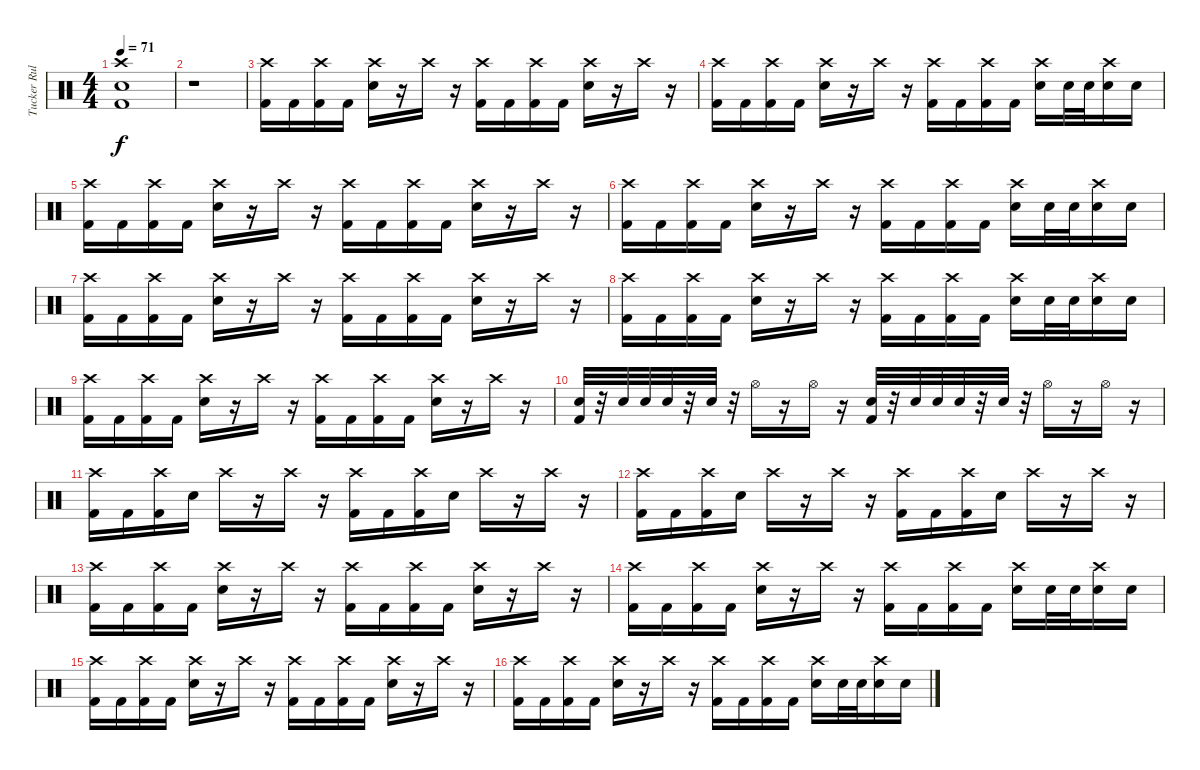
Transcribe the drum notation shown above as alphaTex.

\track ("Tucker Rule (Drums)" "Tucker Rul") {instrument percussion}
\staff {score}
\articulation defaults
\ts (4 4)
\tempo 71
\clef neutral
\ks c
("Crash high (hit)" "Electric Snare (hit)" "Kick (hit) 2").1{dy f} |
r.1 |
("Crash high (hit)" "Kick (hit) 2").16 "Kick (hit) 2".16 ("Crash high (hit)" "Kick (hit) 2").16 "Kick (hit) 2".16 ("Crash high (hit)" "Electric Snare (hit)").16 r.16 "Crash high (hit)".16 r.16 ("Crash high (hit)" "Kick (hit) 2").16 "Kick (hit) 2".16 ("Crash high (hit)" "Kick (hit) 2").16 "Kick (hit) 2".16 ("Crash high (hit)" "Electric Snare (hit)").16 r.16 "Crash high (hit)".16 r.16 |
("Crash high (hit)" "Kick (hit) 2").16 "Kick (hit) 2".16 ("Crash high (hit)" "Kick (hit) 2").16 "Kick (hit) 2".16 ("Crash high (hit)" "Electric Snare (hit)").16 r.16 "Crash high (hit)".16 r.16 ("Crash high (hit)" "Kick (hit) 2").16 "Kick (hit) 2".16 ("Crash high (hit)" "Kick (hit) 2").16 "Kick (hit) 2".16 ("Crash high (hit)" "Electric Snare (hit)").16 "Electric Snare (hit)".32 "Electric Snare (hit)".32 ("Crash high (hit)" "Electric Snare (hit)").16 "Electric Snare (hit)".16 |
("Crash high (hit)" "Kick (hit) 2").16 "Kick (hit) 2".16 ("Crash high (hit)" "Kick (hit) 2").16 "Kick (hit) 2".16 ("Crash high (hit)" "Electric Snare (hit)").16 r.16 "Crash high (hit)".16 r.16 ("Crash high (hit)" "Kick (hit) 2").16 "Kick (hit) 2".16 ("Crash high (hit)" "Kick (hit) 2").16 "Kick (hit) 2".16 ("Crash high (hit)" "Electric Snare (hit)").16 r.16 "Crash high (hit)".16 r.16 |
("Crash high (hit)" "Kick (hit) 2").16 "Kick (hit) 2".16 ("Crash high (hit)" "Kick (hit) 2").16 "Kick (hit) 2".16 ("Crash high (hit)" "Electric Snare (hit)").16 r.16 "Crash high (hit)".16 r.16 ("Crash high (hit)" "Kick (hit) 2").16 "Kick (hit) 2".16 ("Crash high (hit)" "Kick (hit) 2").16 "Kick (hit) 2".16 ("Crash high (hit)" "Electric Snare (hit)").16 "Electric Snare (hit)".32 "Electric Snare (hit)".32 ("Crash high (hit)" "Electric Snare (hit)").16 "Electric Snare (hit)".16 |
("Crash high (hit)" "Kick (hit) 2").16 "Kick (hit) 2".16 ("Crash high (hit)" "Kick (hit) 2").16 "Kick (hit) 2".16 ("Crash high (hit)" "Electric Snare (hit)").16 r.16 "Crash high (hit)".16 r.16 ("Crash high (hit)" "Kick (hit) 2").16 "Kick (hit) 2".16 ("Crash high (hit)" "Kick (hit) 2").16 "Kick (hit) 2".16 ("Crash high (hit)" "Electric Snare (hit)").16 r.16 "Crash high (hit)".16 r.16 |
("Crash high (hit)" "Kick (hit) 2").16 "Kick (hit) 2".16 ("Crash high (hit)" "Kick (hit) 2").16 "Kick (hit) 2".16 ("Crash high (hit)" "Electric Snare (hit)").16 r.16 "Crash high (hit)".16 r.16 ("Crash high (hit)" "Kick (hit) 2").16 "Kick (hit) 2".16 ("Crash high (hit)" "Kick (hit) 2").16 "Kick (hit) 2".16 ("Crash high (hit)" "Electric Snare (hit)").16 "Electric Snare (hit)".32 "Electric Snare (hit)".32 ("Crash high (hit)" "Electric Snare (hit)").16 "Electric Snare (hit)".16 |
("Crash high (hit)" "Kick (hit) 2").16 "Kick (hit) 2".16 ("Crash high (hit)" "Kick (hit) 2").16 "Kick (hit) 2".16 ("Crash high (hit)" "Electric Snare (hit)").16 r.16 "Crash high (hit)".16 r.16 ("Crash high (hit)" "Kick (hit) 2").16 "Kick (hit) 2".16 ("Crash high (hit)" "Kick (hit) 2").16 "Kick (hit) 2".16 ("Crash high (hit)" "Electric Snare (hit)").16 r.16 "Crash high (hit)".16 r.16 |
("Electric Snare (hit)" "Kick (hit) 2").32 r.32 "Electric Snare (hit)".32 "Electric Snare (hit)".32 "Electric Snare (hit)".32 r.32 "Electric Snare (hit)".32 r.32 "Hi-Hat (open)".16 r.16 "Hi-Hat (open)".16 r.16 ("Electric Snare (hit)" "Kick (hit) 2").32 r.32 "Electric Snare (hit)".32 "Electric Snare (hit)".32 "Electric Snare (hit)".32 r.32 "Electric Snare (hit)".32 r.32 "Hi-Hat (open)".16 r.16 "Hi-Hat (open)".16 r.16 |
("Crash high (hit)" "Kick (hit) 2").16 "Kick (hit) 2".16 ("Crash high (hit)" "Kick (hit) 2").16 "Electric Snare (hit)".16 "Crash high (hit)".16 r.16 "Crash high (hit)".16 r.16 ("Crash high (hit)" "Kick (hit) 2").16 "Kick (hit) 2".16 ("Crash high (hit)" "Kick (hit) 2").16 "Electric Snare (hit)".16 "Crash high (hit)".16 r.16 "Crash high (hit)".16 r.16 |
("Crash high (hit)" "Kick (hit) 2").16 "Kick (hit) 2".16 ("Crash high (hit)" "Kick (hit) 2").16 "Electric Snare (hit)".16 "Crash high (hit)".16 r.16 "Crash high (hit)".16 r.16 ("Crash high (hit)" "Kick (hit) 2").16 "Kick (hit) 2".16 ("Crash high (hit)" "Kick (hit) 2").16 "Electric Snare (hit)".16 "Crash high (hit)".16 r.16 "Crash high (hit)".16 r.16 |
("Crash high (hit)" "Kick (hit) 2").16 "Kick (hit) 2".16 ("Crash high (hit)" "Kick (hit) 2").16 "Kick (hit) 2".16 ("Crash high (hit)" "Electric Snare (hit)").16 r.16 "Crash high (hit)".16 r.16 ("Crash high (hit)" "Kick (hit) 2").16 "Kick (hit) 2".16 ("Crash high (hit)" "Kick (hit) 2").16 "Kick (hit) 2".16 ("Crash high (hit)" "Electric Snare (hit)").16 r.16 "Crash high (hit)".16 r.16 |
("Crash high (hit)" "Kick (hit) 2").16 "Kick (hit) 2".16 ("Crash high (hit)" "Kick (hit) 2").16 "Kick (hit) 2".16 ("Crash high (hit)" "Electric Snare (hit)").16 r.16 "Crash high (hit)".16 r.16 ("Crash high (hit)" "Kick (hit) 2").16 "Kick (hit) 2".16 ("Crash high (hit)" "Kick (hit) 2").16 "Kick (hit) 2".16 ("Crash high (hit)" "Electric Snare (hit)").16 "Electric Snare (hit)".32 "Electric Snare (hit)".32 ("Crash high (hit)" "Electric Snare (hit)").16 "Electric Snare (hit)".16 |
("Crash high (hit)" "Kick (hit) 2").16 "Kick (hit) 2".16 ("Crash high (hit)" "Kick (hit) 2").16 "Kick (hit) 2".16 ("Crash high (hit)" "Electric Snare (hit)").16 r.16 "Crash high (hit)".16 r.16 ("Crash high (hit)" "Kick (hit) 2").16 "Kick (hit) 2".16 ("Crash high (hit)" "Kick (hit) 2").16 "Kick (hit) 2".16 ("Crash high (hit)" "Electric Snare (hit)").16 r.16 "Crash high (hit)".16 r.16 |
("Crash high (hit)" "Kick (hit) 2").16 "Kick (hit) 2".16 ("Crash high (hit)" "Kick (hit) 2").16 "Kick (hit) 2".16 ("Crash high (hit)" "Electric Snare (hit)").16 r.16 "Crash high (hit)".16 r.16 ("Crash high (hit)" "Kick (hit) 2").16 "Kick (hit) 2".16 ("Crash high (hit)" "Kick (hit) 2").16 "Kick (hit) 2".16 ("Crash high (hit)" "Electric Snare (hit)").16 "Electric Snare (hit)".32 "Electric Snare (hit)".32 ("Crash high (hit)" "Electric Snare (hit)").16 "Electric Snare (hit)".16
